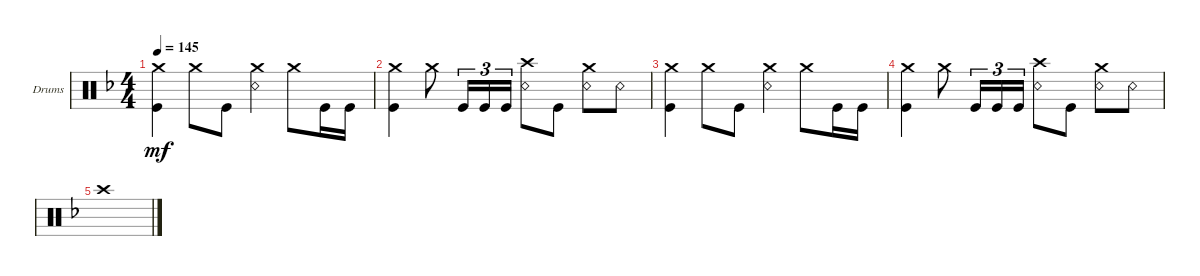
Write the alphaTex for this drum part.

\defaultSystemsLayout 4
\bracketExtendMode groupsimilarinstruments
\firstSystemTrackNameOrientation horizontal
\otherSystemsTrackNameOrientation horizontal
\track ("Drumkit" "Drums") {instrument percussion}
\staff {score}
\articulation defaults
\ts (4 4)
\tempo 145
\clef neutral
\ks dminor
("Kick (hit)" "Crash medium (hit)").4{dy mf} "Crash medium (hit)".8 "Kick (hit)".8 ("Snare (rim shot)" "Crash medium (hit)").4 "Crash medium (hit)".8 "Kick (hit)".16 "Kick (hit)".16 |
("Kick (hit)" "Crash medium (hit)").4 "Crash medium (hit)".8 "Kick (hit)".16{tu (3 2)} "Kick (hit)".16{tu (3 2)} "Kick (hit)".16{tu (3 2)} ("Snare (rim shot)" "Crash high (hit)").8 "Kick (hit)".8 ("Snare (rim shot)" "Crash medium (hit)").8 "Snare (rim shot)".8 |
("Kick (hit)" "Crash medium (hit)").4 "Crash medium (hit)".8 "Kick (hit)".8 ("Snare (rim shot)" "Crash medium (hit)").4 "Crash medium (hit)".8 "Kick (hit)".16 "Kick (hit)".16 |
("Kick (hit)" "Crash medium (hit)").4 "Crash medium (hit)".8 "Kick (hit)".16{tu (3 2)} "Kick (hit)".16{tu (3 2)} "Kick (hit)".16{tu (3 2)} ("Snare (rim shot)" "Crash high (hit)").8 "Kick (hit)".8 ("Snare (rim shot)" "Crash medium (hit)").8 "Snare (rim shot)".8 |
"Crash high (hit)".1
